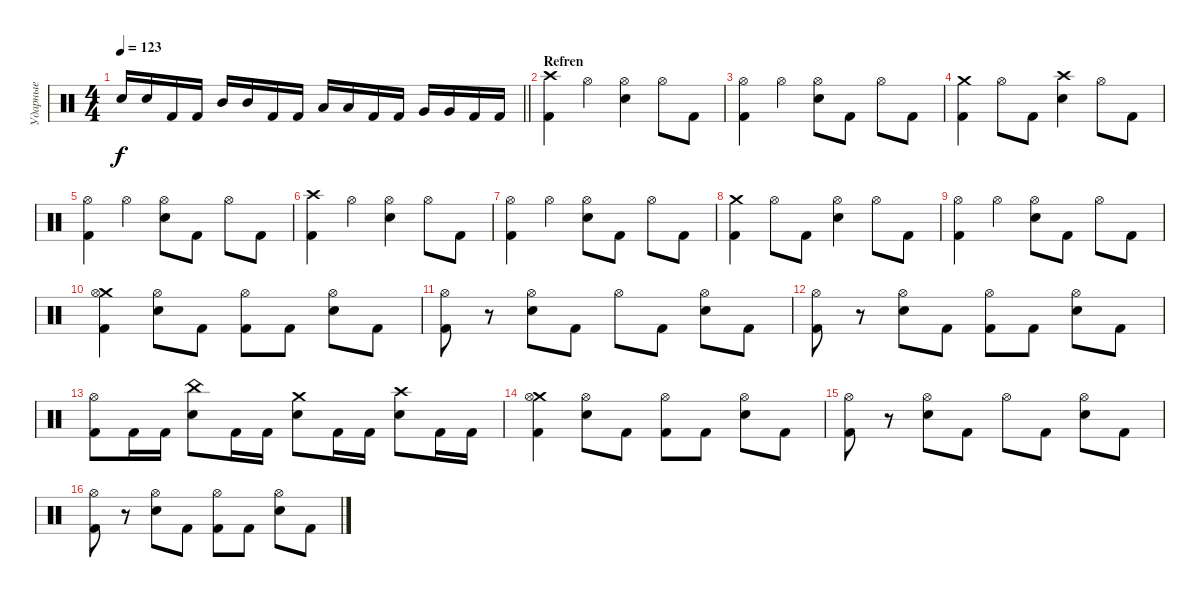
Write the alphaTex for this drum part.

\track ("Ударные" "Ударные") {instrument percussion}
\staff {score}
\articulation defaults
\ts (4 4)
\tempo 123
\clef neutral
\barLineRight lightlight
\ks c "Snare (hit) 2".16{dy f} "Snare (hit) 2".16 "Kick (hit) 2".16 "Kick (hit) 2".16 "Mid Tom (hit)".16 "Mid Tom (hit)".16 "Kick (hit) 2".16 "Kick (hit) 2".16 "Low Tom (hit)".16 "Low Tom (hit)".16 "Kick (hit) 2".16 "Kick (hit) 2".16 "Very Low Tom (hit)".16 "Very Low Tom (hit)".16 "Kick (hit) 2".16 "Kick (hit) 2".16
|
\section ("" "Refren")
("Crash high (hit)" "Kick (hit) 2").4 "Hi-Hat (open)".4 ("Snare (hit) 2" "Hi-Hat (open)").4 "Hi-Hat (open)".8 "Kick (hit) 2".8 |
("Kick (hit) 2" "Hi-Hat (open)").4 "Hi-Hat (open)".4 ("Snare (hit) 2" "Hi-Hat (open)").8 "Kick (hit) 2".8 "Hi-Hat (open)".8 "Kick (hit) 2".8 |
("Crash medium (hit)" "Kick (hit) 2").4 "Hi-Hat (open)".8 "Kick (hit) 2".8 ("Crash high (hit)" "Snare (hit) 2").4 "Hi-Hat (open)".8 "Kick (hit) 2".8 |
("Kick (hit) 2" "Hi-Hat (open)").4 "Hi-Hat (open)".4 ("Snare (hit) 2" "Hi-Hat (open)").8 "Kick (hit) 2".8 "Hi-Hat (open)".8 "Kick (hit) 2".8 |
("Crash high (hit)" "Kick (hit) 2").4 "Hi-Hat (open)".4 ("Snare (hit) 2" "Hi-Hat (open)").4 "Hi-Hat (open)".8 "Kick (hit) 2".8 |
("Kick (hit) 2" "Hi-Hat (open)").4 "Hi-Hat (open)".4 ("Snare (hit) 2" "Hi-Hat (open)").8 "Kick (hit) 2".8 "Hi-Hat (open)".8 "Kick (hit) 2".8 |
("Crash medium (hit)" "Kick (hit) 2").4 "Hi-Hat (open)".8 "Kick (hit) 2".8 ("Snare (hit) 2" "Hi-Hat (open)").4 "Hi-Hat (open)".8 "Kick (hit) 2".8 |
("Kick (hit) 2" "Hi-Hat (open)").4 "Hi-Hat (open)".4 ("Snare (hit) 2" "Hi-Hat (open)").8 "Kick (hit) 2".8 "Hi-Hat (open)".8 "Kick (hit) 2".8 |
("Crash medium (hit)" "Kick (hit) 2" "Hi-Hat (open)").4 ("Snare (hit) 2" "Hi-Hat (open)").8 "Kick (hit) 2".8 ("Kick (hit) 2" "Hi-Hat (open)").8 "Kick (hit) 2".8 ("Snare (hit) 2" "Hi-Hat (open)").8 "Kick (hit) 2".8 |
("Kick (hit) 2" "Hi-Hat (open)").8 r.8 ("Snare (hit) 2" "Hi-Hat (open)").8 "Kick (hit) 2".8 "Hi-Hat (open)".8 "Kick (hit) 2".8 ("Snare (hit) 2" "Hi-Hat (open)").8 "Kick (hit) 2".8 |
("Kick (hit) 2" "Hi-Hat (open)").8 r.8 ("Snare (hit) 2" "Hi-Hat (open)").8 "Kick (hit) 2".8 ("Kick (hit) 2" "Hi-Hat (open)").8 "Kick (hit) 2".8 ("Snare (hit) 2" "Hi-Hat (open)").8 "Kick (hit) 2".8 |
("Kick (hit) 2" "Hi-Hat (open)").8 "Kick (hit) 2".16 "Kick (hit) 2".16 ("China (hit)" "Snare (hit) 2").8 "Kick (hit) 2".16 "Kick (hit) 2".16 ("Crash medium (hit)" "Snare (hit) 2").8 "Kick (hit) 2".16 "Kick (hit) 2".16 ("Crash high (hit)" "Snare (hit) 2").8 "Kick (hit) 2".16 "Kick (hit) 2".16 |
("Crash medium (hit)" "Kick (hit) 2" "Hi-Hat (open)").4 ("Snare (hit) 2" "Hi-Hat (open)").8 "Kick (hit) 2".8 ("Kick (hit) 2" "Hi-Hat (open)").8 "Kick (hit) 2".8 ("Snare (hit) 2" "Hi-Hat (open)").8 "Kick (hit) 2".8 |
("Kick (hit) 2" "Hi-Hat (open)").8 r.8 ("Snare (hit) 2" "Hi-Hat (open)").8 "Kick (hit) 2".8 "Hi-Hat (open)".8 "Kick (hit) 2".8 ("Snare (hit) 2" "Hi-Hat (open)").8 "Kick (hit) 2".8 |
("Kick (hit) 2" "Hi-Hat (open)").8 r.8 ("Snare (hit) 2" "Hi-Hat (open)").8 "Kick (hit) 2".8 ("Kick (hit) 2" "Hi-Hat (open)").8 "Kick (hit) 2".8 ("Snare (hit) 2" "Hi-Hat (open)").8 "Kick (hit) 2".8
